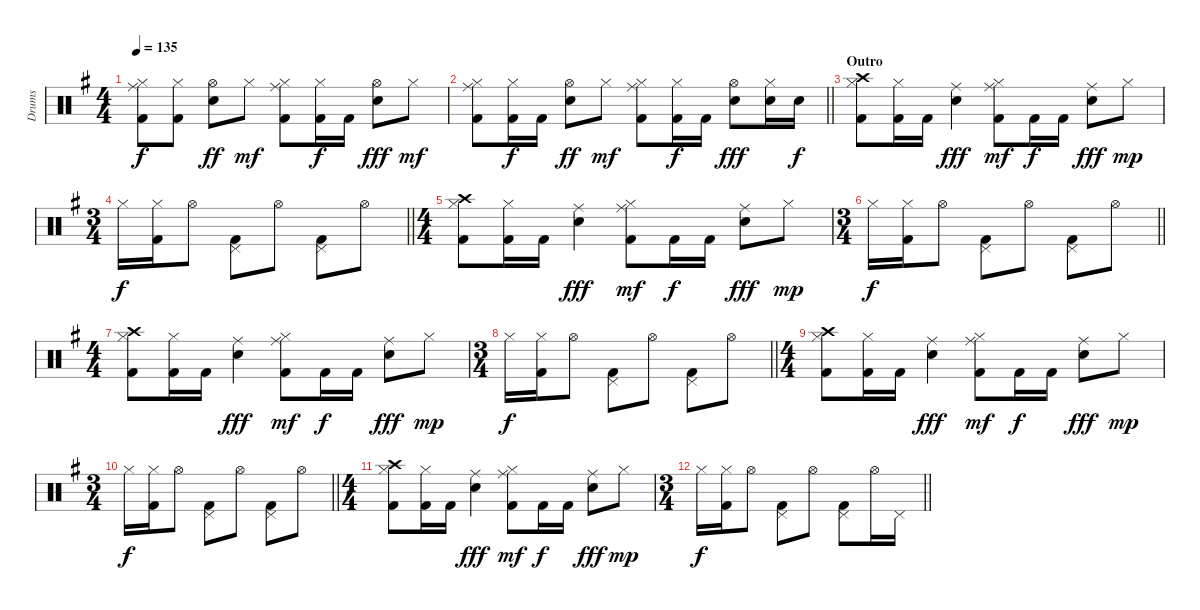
\track ("Drums" "Drums") {instrument percussion}
\staff {score}
\articulation defaults
\ts (4 4)
\tempo 135
\clef neutral
\ks g
("Hi-Hat (closed)" "Ride (middle)" "Kick (hit) 2").8{dy f} ("Hi-Hat (closed)" "Kick (hit) 2").8 ("Hi-Hat (open)" "Electric Snare (hit)").8{dy ff} "Hi-Hat (closed)".8{dy mf} ("Hi-Hat (closed)" "Ride (middle)" "Kick (hit) 2").8 ("Hi-Hat (closed)" "Kick (hit) 2").16{dy f} "Kick (hit) 2".16 ("Hi-Hat (open)" "Electric Snare (hit)").8{dy fff} "Hi-Hat (closed)".8{dy mf} |
\barLineRight lightlight
("Hi-Hat (closed)" "Ride (middle)" "Kick (hit) 2").8 ("Hi-Hat (closed)" "Kick (hit) 2").16{dy f} "Kick (hit) 2".16 ("Hi-Hat (open)" "Electric Snare (hit)").8{dy ff} "Hi-Hat (closed)".8{dy mf} ("Hi-Hat (closed)" "Ride (middle)" "Kick (hit) 2").8 ("Hi-Hat (closed)" "Kick (hit) 2").16{dy f} "Kick (hit) 2".16 ("Hi-Hat (open)" "Electric Snare (hit)").8{dy fff} ("Hi-Hat (closed)" "Electric Snare (hit)").16 "Electric Snare (hit)".16{dy f} |
\section ("" "Outro")
("Hi-Hat (closed)" "Crash high (hit)" "Kick (hit) 2").8 ("Hi-Hat (closed)" "Kick (hit) 2").16 "Kick (hit) 2".16 ("Ride (middle)" "Electric Snare (hit)").4{dy fff} ("Hi-Hat (closed)" "Ride (middle)" "Kick (hit) 2").8{dy mf} "Kick (hit) 2".16{dy f} "Kick (hit) 2".16 ("Ride (middle)" "Electric Snare (hit)").8{dy fff} "Hi-Hat (closed)".8{dy mp} |
\ts (3 4)
\barLineRight lightlight "Hi-Hat (closed)".16{dy f}
("Hi-Hat (closed)" "Kick (hit) 2").16 "Hi-Hat (open)".8 ("Pedal Hi-Hat (hit)" "Kick (hit) 2").8 "Hi-Hat (open)".8 ("Pedal Hi-Hat (hit)" "Kick (hit) 2").8 "Hi-Hat (open)".8 |
\ts (4 4)
("Hi-Hat (closed)" "Crash high (hit)" "Kick (hit) 2").8 ("Hi-Hat (closed)" "Kick (hit) 2").16 "Kick (hit) 2".16 ("Ride (middle)" "Electric Snare (hit)").4{dy fff} ("Hi-Hat (closed)" "Ride (middle)" "Kick (hit) 2").8{dy mf} "Kick (hit) 2".16{dy f} "Kick (hit) 2".16 ("Ride (middle)" "Electric Snare (hit)").8{dy fff} "Hi-Hat (closed)".8{dy mp} |
\ts (3 4)
\barLineRight lightlight "Hi-Hat (closed)".16{dy f}
("Hi-Hat (closed)" "Kick (hit) 2").16 "Hi-Hat (open)".8 ("Pedal Hi-Hat (hit)" "Kick (hit) 2").8 "Hi-Hat (open)".8 ("Pedal Hi-Hat (hit)" "Kick (hit) 2").8 "Hi-Hat (open)".8 |
\ts (4 4)
("Hi-Hat (closed)" "Crash high (hit)" "Kick (hit) 2").8 ("Hi-Hat (closed)" "Kick (hit) 2").16 "Kick (hit) 2".16 ("Ride (middle)" "Electric Snare (hit)").4{dy fff} ("Hi-Hat (closed)" "Ride (middle)" "Kick (hit) 2").8{dy mf} "Kick (hit) 2".16{dy f} "Kick (hit) 2".16 ("Ride (middle)" "Electric Snare (hit)").8{dy fff} "Hi-Hat (closed)".8{dy mp} |
\ts (3 4)
\barLineRight lightlight "Hi-Hat (closed)".16{dy f}
("Hi-Hat (closed)" "Kick (hit) 2").16 "Hi-Hat (open)".8 ("Pedal Hi-Hat (hit)" "Kick (hit) 2").8 "Hi-Hat (open)".8 ("Pedal Hi-Hat (hit)" "Kick (hit) 2").8 "Hi-Hat (open)".8 |
\ts (4 4)
("Hi-Hat (closed)" "Crash high (hit)" "Kick (hit) 2").8 ("Hi-Hat (closed)" "Kick (hit) 2").16 "Kick (hit) 2".16 ("Ride (middle)" "Electric Snare (hit)").4{dy fff} ("Hi-Hat (closed)" "Ride (middle)" "Kick (hit) 2").8{dy mf} "Kick (hit) 2".16{dy f} "Kick (hit) 2".16 ("Ride (middle)" "Electric Snare (hit)").8{dy fff} "Hi-Hat (closed)".8{dy mp} |
\ts (3 4)
\barLineRight lightlight "Hi-Hat (closed)".16{dy f}
("Hi-Hat (closed)" "Kick (hit) 2").16 "Hi-Hat (open)".8 ("Pedal Hi-Hat (hit)" "Kick (hit) 2").8 "Hi-Hat (open)".8 ("Pedal Hi-Hat (hit)" "Kick (hit) 2").8 "Hi-Hat (open)".8 |
\ts (4 4)
("Hi-Hat (closed)" "Crash high (hit)" "Kick (hit) 2").8 ("Hi-Hat (closed)" "Kick (hit) 2").16 "Kick (hit) 2".16 ("Ride (middle)" "Electric Snare (hit)").4{dy fff} ("Hi-Hat (closed)" "Ride (middle)" "Kick (hit) 2").8{dy mf} "Kick (hit) 2".16{dy f} "Kick (hit) 2".16 ("Ride (middle)" "Electric Snare (hit)").8{dy fff} "Hi-Hat (closed)".8{dy mp} |
\ts (3 4)
\barLineRight lightlight "Hi-Hat (closed)".16{dy f}
("Hi-Hat (closed)" "Kick (hit) 2").16 "Hi-Hat (open)".8 ("Pedal Hi-Hat (hit)" "Kick (hit) 2").8 "Hi-Hat (open)".8 ("Pedal Hi-Hat (hit)" "Kick (hit) 2").8 "Hi-Hat (open)".16 "Pedal Hi-Hat (hit)".16
